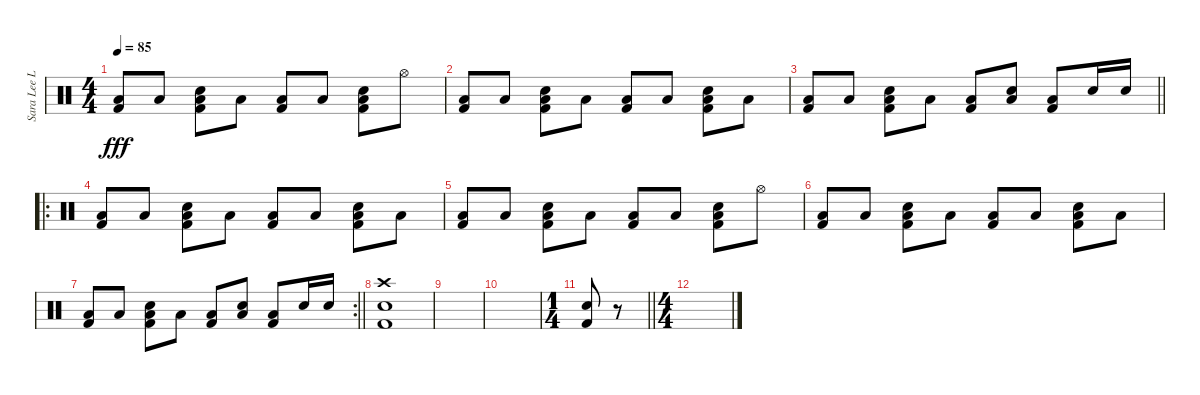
\track ("Sara Lee Lucas" "Sara Lee L") {instrument percussion}
\staff {score}
\articulation defaults
\ts (4 4)
\tempo 85
\clef neutral
\ks c
("Low Tom (hit)" "Kick (hit) 2").8{dy fff} "Low Tom (hit)".8 ("Low Tom (hit)" "Snare (hit) 2" "Kick (hit) 2").8 "Low Tom (hit)".8 ("Low Tom (hit)" "Kick (hit) 2").8 "Low Tom (hit)".8 ("Low Tom (hit)" "Snare (hit) 2" "Kick (hit) 2").8 "Hi-Hat (open)".8 |
("Low Tom (hit)" "Kick (hit) 2").8 "Low Tom (hit)".8 ("Low Tom (hit)" "Snare (hit) 2" "Kick (hit) 2").8 "Low Tom (hit)".8 ("Low Tom (hit)" "Kick (hit) 2").8 "Low Tom (hit)".8 ("Low Tom (hit)" "Snare (hit) 2" "Kick (hit) 2").8 "Low Tom (hit)".8 |
\barLineRight lightlight
("Low Tom (hit)" "Kick (hit) 2").8 "Low Tom (hit)".8 ("Low Tom (hit)" "Snare (hit) 2" "Kick (hit) 2").8 "Low Tom (hit)".8 ("Low Tom (hit)" "Kick (hit) 2").8 ("Low Tom (hit)" "Snare (hit) 2").8 ("Low Tom (hit)" "Kick (hit) 2").8 "Snare (hit) 2".16 "Snare (hit) 2".16 |
\ro
("Low Tom (hit)" "Kick (hit) 2").8 "Low Tom (hit)".8 ("Low Tom (hit)" "Snare (hit) 2" "Kick (hit) 2").8 "Low Tom (hit)".8 ("Low Tom (hit)" "Kick (hit) 2").8 "Low Tom (hit)".8 ("Low Tom (hit)" "Snare (hit) 2" "Kick (hit) 2").8 "Low Tom (hit)".8 |
("Low Tom (hit)" "Kick (hit) 2").8 "Low Tom (hit)".8 ("Low Tom (hit)" "Snare (hit) 2" "Kick (hit) 2").8 "Low Tom (hit)".8 ("Low Tom (hit)" "Kick (hit) 2").8 "Low Tom (hit)".8 ("Low Tom (hit)" "Snare (hit) 2" "Kick (hit) 2").8 "Hi-Hat (open)".8 |
("Low Tom (hit)" "Kick (hit) 2").8 "Low Tom (hit)".8 ("Low Tom (hit)" "Snare (hit) 2" "Kick (hit) 2").8 "Low Tom (hit)".8 ("Low Tom (hit)" "Kick (hit) 2").8 "Low Tom (hit)".8 ("Low Tom (hit)" "Snare (hit) 2" "Kick (hit) 2").8 "Low Tom (hit)".8 |
\rc 2
\barLineRight lightlight
("Low Tom (hit)" "Kick (hit) 2").8 "Low Tom (hit)".8 ("Low Tom (hit)" "Snare (hit) 2" "Kick (hit) 2").8 "Low Tom (hit)".8 ("Low Tom (hit)" "Kick (hit) 2").8 ("Low Tom (hit)" "Snare (hit) 2").8 ("Low Tom (hit)" "Kick (hit) 2").8 "Snare (hit) 2".16 "Snare (hit) 2".16 |
("Crash high (hit)" "Snare (hit) 2" "Kick (hit) 2").1 |
|
|
\ts (1 4)
\barLineRight lightlight
("Snare (hit) 2" "Kick (hit) 2").8 r.8 |
\ts (4 4)
